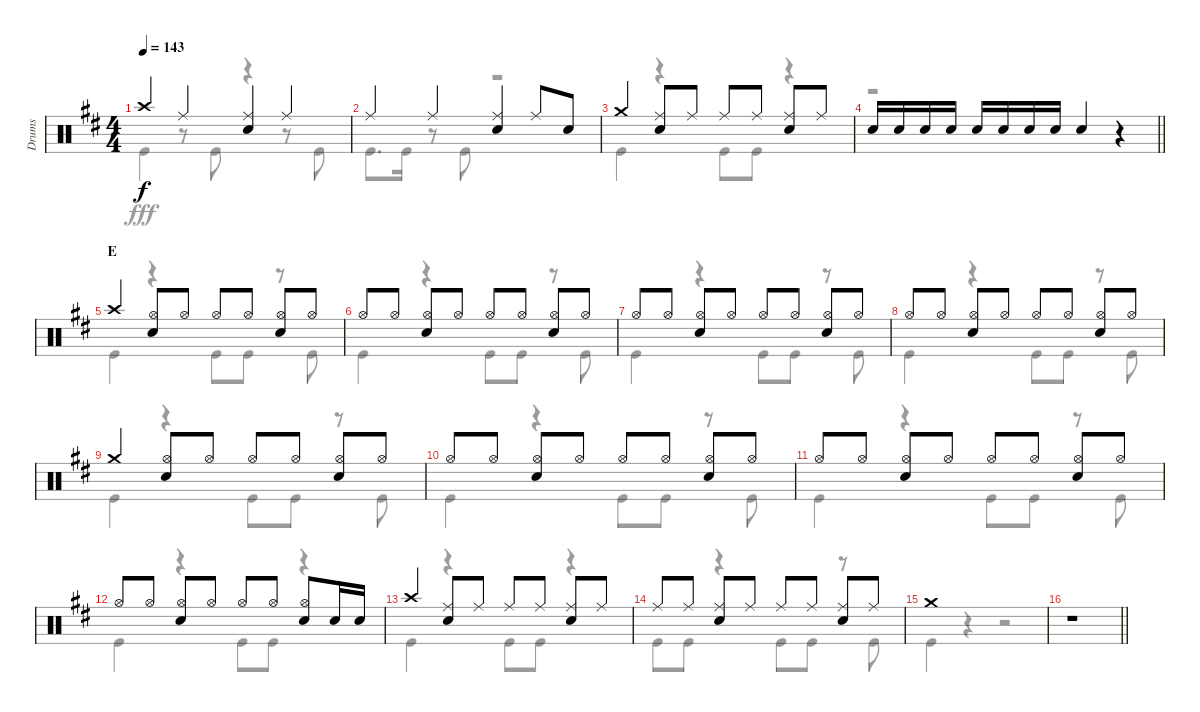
\track ("Drums" "Drums") {instrument percussion}
\staff {score}
\articulation defaults
\voice
\ts (4 4)
\tempo 143
\clef neutral
\ks d "Crash high (hit)".4{dy f} "Ride (middle)".4
("Ride (middle)" "Snare (hit) 2").4 "Ride (middle)".4 |
"Ride (middle)".4 "Ride (middle)".4 ("Ride (middle)" "Snare (hit) 2").4 "Ride (middle)".8 "Snare (hit) 2".8 |
"Crash medium (hit)".4 ("Ride (middle)" "Snare (hit) 2").8 "Ride (middle)".8 "Ride (middle)".8 "Ride (middle)".8 ("Ride (middle)" "Snare (hit) 2").8 "Ride (middle)".8 |
\barLineRight lightlight "Snare (hit) 2".16 "Snare (hit) 2".16 "Snare (hit) 2".16 "Snare (hit) 2".16 "Snare (hit) 2".16 "Snare (hit) 2".16 "Snare (hit) 2".16 "Snare (hit) 2".16 "Snare (hit) 2".4
r.4 |
\section ("" "E")
"Crash high (hit)".4 ("Hi-Hat (open)" "Snare (hit) 2").8 "Hi-Hat (open)".8 "Hi-Hat (open)".8 "Hi-Hat (open)".8 ("Hi-Hat (open)" "Snare (hit) 2").8 "Hi-Hat (open)".8 |
"Hi-Hat (open)".8 "Hi-Hat (open)".8 ("Hi-Hat (open)" "Snare (hit) 2").8 "Hi-Hat (open)".8 "Hi-Hat (open)".8 "Hi-Hat (open)".8 ("Hi-Hat (open)" "Snare (hit) 2").8 "Hi-Hat (open)".8 |
"Hi-Hat (open)".8 "Hi-Hat (open)".8 ("Hi-Hat (open)" "Snare (hit) 2").8 "Hi-Hat (open)".8 "Hi-Hat (open)".8 "Hi-Hat (open)".8 ("Hi-Hat (open)" "Snare (hit) 2").8 "Hi-Hat (open)".8 |
"Hi-Hat (open)".8 "Hi-Hat (open)".8 ("Hi-Hat (open)" "Snare (hit) 2").8 "Hi-Hat (open)".8 "Hi-Hat (open)".8 "Hi-Hat (open)".8 ("Hi-Hat (open)" "Snare (hit) 2").8 "Hi-Hat (open)".8 |
"Crash medium (hit)".4 ("Hi-Hat (open)" "Snare (hit) 2").8 "Hi-Hat (open)".8 "Hi-Hat (open)".8 "Hi-Hat (open)".8 ("Hi-Hat (open)" "Snare (hit) 2").8 "Hi-Hat (open)".8 |
"Hi-Hat (open)".8 "Hi-Hat (open)".8 ("Hi-Hat (open)" "Snare (hit) 2").8 "Hi-Hat (open)".8 "Hi-Hat (open)".8 "Hi-Hat (open)".8 ("Hi-Hat (open)" "Snare (hit) 2").8 "Hi-Hat (open)".8 |
"Hi-Hat (open)".8 "Hi-Hat (open)".8 ("Hi-Hat (open)" "Snare (hit) 2").8 "Hi-Hat (open)".8 "Hi-Hat (open)".8 "Hi-Hat (open)".8 ("Hi-Hat (open)" "Snare (hit) 2").8 "Hi-Hat (open)".8 |
"Hi-Hat (open)".8 "Hi-Hat (open)".8 ("Hi-Hat (open)" "Snare (hit) 2").8 "Hi-Hat (open)".8 "Hi-Hat (open)".8 "Hi-Hat (open)".8 ("Hi-Hat (open)" "Snare (hit) 2").8 "Snare (hit) 2".16 "Snare (hit) 2".16 |
"Crash high (hit)".4 ("Ride (middle)" "Snare (hit) 2").8 "Ride (middle)".8 "Ride (middle)".8 "Ride (middle)".8 ("Ride (middle)" "Snare (hit) 2").8 "Ride (middle)".8 |
"Ride (middle)".8 "Ride (middle)".8 ("Ride (middle)" "Snare (hit) 2").8 "Ride (middle)".8 "Ride (middle)".8 "Ride (middle)".8 ("Ride (middle)" "Snare (hit) 2").8 "Ride (middle)".8 |
"Crash medium (hit)".1 |
\barLineRight lightlight
r.1
\voice
\clef neutral
\ottava regular
\simile none
\ks d "Kick (hit)".4{dy fff}
r.8 "Kick (hit)".8 r.4 r.8 "Kick (hit)".8 |
"Kick (hit)".8{d} "Kick (hit)".16 r.8 "Kick (hit)".8 r.2 |
"Kick (hit)".4 r.4 "Kick (hit)".8 "Kick (hit)".8 r.4 |
\barLineRight lightlight
r.1 |
"Kick (hit)".4 r.4 "Kick (hit)".8 "Kick (hit)".8 r.8 "Kick (hit)".8 |
"Kick (hit)".4 r.4 "Kick (hit)".8 "Kick (hit)".8 r.8 "Kick (hit)".8 |
"Kick (hit)".4 r.4 "Kick (hit)".8 "Kick (hit)".8 r.8 "Kick (hit)".8 |
"Kick (hit)".4 r.4 "Kick (hit)".8 "Kick (hit)".8 r.8 "Kick (hit)".8 |
"Kick (hit)".4 r.4 "Kick (hit)".8 "Kick (hit)".8 r.8 "Kick (hit)".8 |
"Kick (hit)".4 r.4 "Kick (hit)".8 "Kick (hit)".8 r.8 "Kick (hit)".8 |
"Kick (hit)".4 r.4 "Kick (hit)".8 "Kick (hit)".8 r.8 "Kick (hit)".8 |
"Kick (hit)".4 r.4 "Kick (hit)".8 "Kick (hit)".8 r.4 |
"Kick (hit)".4 r.4 "Kick (hit)".8 "Kick (hit)".8 r.4 |
"Kick (hit)".8 "Kick (hit)".8 r.4 "Kick (hit)".8 "Kick (hit)".8 r.8 "Kick (hit)".8 |
"Kick (hit)".4 r.4 r.2 |
\barLineRight lightlight
r.1
